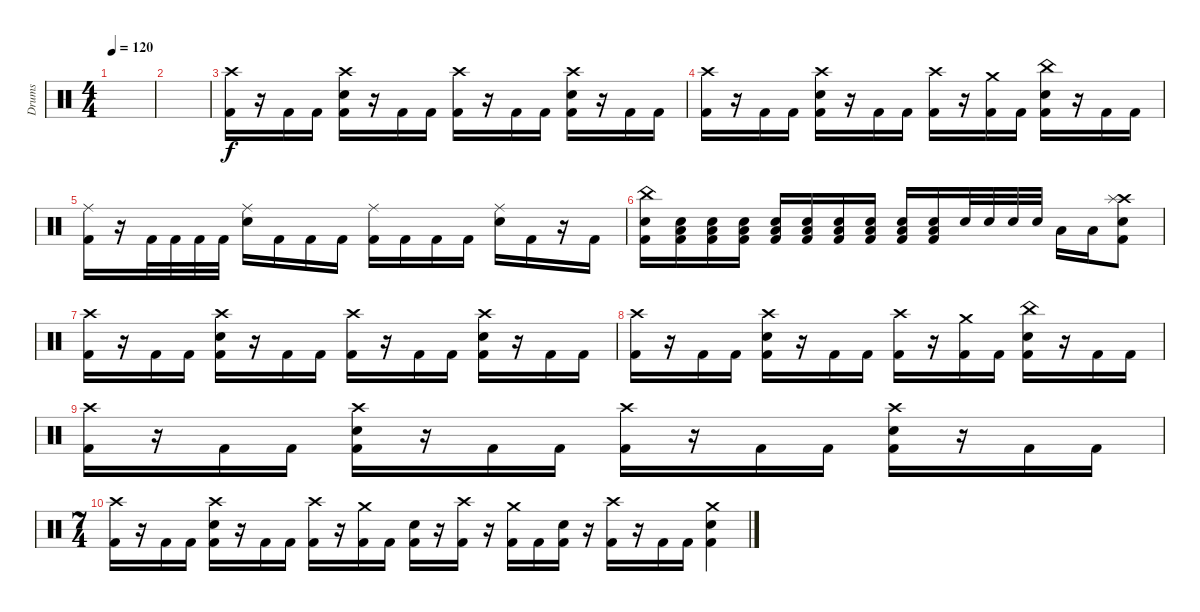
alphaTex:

\track ("Drums" "Drums") {instrument percussion}
\staff {score}
\articulation defaults
\ts (4 4)
\tempo 120
\clef neutral
\ks c
|
|
("Crash high (hit)" "Kick (hit) 2").16 r.16 "Kick (hit) 2".16 "Kick (hit) 2".16 ("Crash high (hit)" "Electric Snare (hit)" "Kick (hit) 2").16 r.16 "Kick (hit) 2".16 "Kick (hit) 2".16 ("Crash high (hit)" "Kick (hit) 2").16 r.16 "Kick (hit) 2".16 "Kick (hit) 2".16 ("Crash high (hit)" "Electric Snare (hit)" "Kick (hit) 2").16 r.16 "Kick (hit) 2".16 "Kick (hit) 2".16 |
("Crash high (hit)" "Kick (hit) 2").16 r.16 "Kick (hit) 2".16 "Kick (hit) 2".16 ("Crash high (hit)" "Electric Snare (hit)" "Kick (hit) 2").16 r.16 "Kick (hit) 2".16 "Kick (hit) 2".16 ("Crash high (hit)" "Kick (hit) 2").16 r.16 ("Crash medium (hit)" "Kick (hit) 2").16 "Kick (hit) 2".16 ("China (hit)" "Electric Snare (hit)" "Kick (hit) 2").16 r.16 "Kick (hit) 2".16 "Kick (hit) 2".16 |
("Ride (middle)" "Kick (hit) 2").16 r.16 "Kick (hit) 2".32 "Kick (hit) 2".32 "Kick (hit) 2".32 "Kick (hit) 2".32 ("Ride (middle)" "Electric Snare (hit)").16 "Kick (hit) 2".16 "Kick (hit) 2".16 "Kick (hit) 2".16 ("Ride (middle)" "Kick (hit) 2").16 "Kick (hit) 2".16 "Kick (hit) 2".16 "Kick (hit) 2".16 ("Ride (middle)" "Electric Snare (hit)").16 "Kick (hit) 2".16 r.16 "Kick (hit) 2".16 |
("China (hit)" "Electric Snare (hit)" "Kick (hit) 2").16 ("Electric Snare (hit)" "Low Floor Tom (hit)" "Kick (hit) 2").16 ("Electric Snare (hit)" "Low Floor Tom (hit)" "Kick (hit) 2").16 ("Electric Snare (hit)" "Low Floor Tom (hit)" "Kick (hit) 2").16 ("Electric Snare (hit)" "Low Floor Tom (hit)" "Kick (hit) 2").16 ("Electric Snare (hit)" "Low Floor Tom (hit)" "Kick (hit) 2").16 ("Electric Snare (hit)" "Low Floor Tom (hit)" "Kick (hit) 2").16 ("Electric Snare (hit)" "Low Floor Tom (hit)" "Kick (hit) 2").16 ("Electric Snare (hit)" "Low Floor Tom (hit)" "Kick (hit) 2").16 ("Electric Snare (hit)" "Low Floor Tom (hit)" "Kick (hit) 2").16 "Electric Snare (hit)".32 "Electric Snare (hit)".32 "Electric Snare (hit)".32 "Electric Snare (hit)".32 "Low Tom (hit)".16 "Low Floor Tom (hit)".16 ("Crash high (hit)" "Splash (hit)" "Electric Snare (hit)" "Kick (hit) 2").8 |
("Crash high (hit)" "Kick (hit) 2").16 r.16 "Kick (hit) 2".16 "Kick (hit) 2".16 ("Crash high (hit)" "Electric Snare (hit)" "Kick (hit) 2").16 r.16 "Kick (hit) 2".16 "Kick (hit) 2".16 ("Crash high (hit)" "Kick (hit) 2").16 r.16 "Kick (hit) 2".16 "Kick (hit) 2".16 ("Crash high (hit)" "Electric Snare (hit)" "Kick (hit) 2").16 r.16 "Kick (hit) 2".16 "Kick (hit) 2".16 |
("Crash high (hit)" "Kick (hit) 2").16 r.16 "Kick (hit) 2".16 "Kick (hit) 2".16 ("Crash high (hit)" "Electric Snare (hit)" "Kick (hit) 2").16 r.16 "Kick (hit) 2".16 "Kick (hit) 2".16 ("Crash high (hit)" "Kick (hit) 2").16 r.16 ("Crash medium (hit)" "Kick (hit) 2").16 "Kick (hit) 2".16 ("China (hit)" "Electric Snare (hit)" "Kick (hit) 2").16 r.16 "Kick (hit) 2".16 "Kick (hit) 2".16 |
("Crash high (hit)" "Kick (hit) 2").16 r.16 "Kick (hit) 2".16 "Kick (hit) 2".16 ("Crash high (hit)" "Electric Snare (hit)" "Kick (hit) 2").16 r.16 "Kick (hit) 2".16 "Kick (hit) 2".16 ("Crash high (hit)" "Kick (hit) 2").16 r.16 "Kick (hit) 2".16 "Kick (hit) 2".16 ("Crash high (hit)" "Electric Snare (hit)" "Kick (hit) 2").16 r.16 "Kick (hit) 2".16 "Kick (hit) 2".16 |
\ts (7 4)
("Crash high (hit)" "Kick (hit) 2").16 r.16 "Kick (hit) 2".16 "Kick (hit) 2".16 ("Crash high (hit)" "Electric Snare (hit)" "Kick (hit) 2").16 r.16 "Kick (hit) 2".16 "Kick (hit) 2".16 ("Crash high (hit)" "Kick (hit) 2").16 r.16 ("Crash medium (hit)" "Kick (hit) 2").16 "Kick (hit) 2".16 ("Electric Snare (hit)" "Kick (hit) 2").16 r.16 ("Crash high (hit)" "Kick (hit) 2").16 r.16 ("Crash medium (hit)" "Kick (hit) 2").16 "Kick (hit) 2".16 ("Electric Snare (hit)" "Kick (hit) 2").16 r.16 ("Crash high (hit)" "Kick (hit) 2").16 r.16 "Kick (hit) 2".16 "Kick (hit) 2".16 ("Crash medium (hit)" "Electric Snare (hit)" "Kick (hit) 2").4
